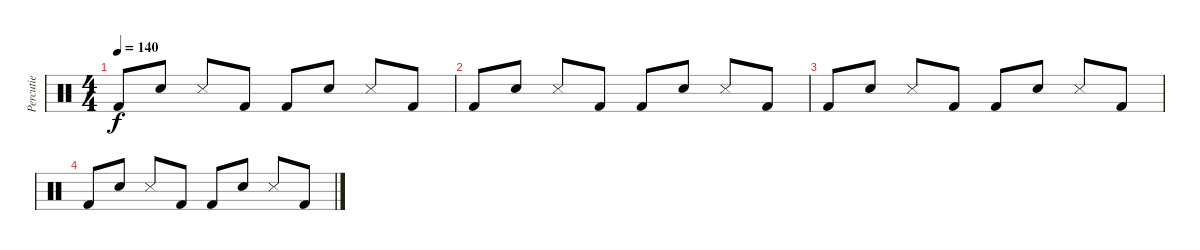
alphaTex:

\track ("Percutie" "Percutie") {instrument percussion}
\staff {score}
\articulation defaults
\ts (4 4)
\tempo 140
\clef neutral
\ks c "Kick (hit) 2".8{dy f} "Electric Snare (hit)".8 "Snare (side stick) 3".8 "Kick (hit) 2".8 "Kick (hit) 2".8 "Electric Snare (hit)".8 "Snare (side stick) 3".8 "Kick (hit) 2".8
|
"Kick (hit) 2".8 "Electric Snare (hit)".8 "Snare (side stick) 3".8 "Kick (hit) 2".8 "Kick (hit) 2".8 "Electric Snare (hit)".8 "Snare (side stick) 3".8 "Kick (hit) 2".8 |
"Kick (hit) 2".8 "Electric Snare (hit)".8 "Snare (side stick) 3".8 "Kick (hit) 2".8 "Kick (hit) 2".8 "Electric Snare (hit)".8 "Snare (side stick) 3".8 "Kick (hit) 2".8 |
"Kick (hit) 2".8 "Electric Snare (hit)".8 "Snare (side stick) 3".8 "Kick (hit) 2".8 "Kick (hit) 2".8 "Electric Snare (hit)".8 "Snare (side stick) 3".8 "Kick (hit) 2".8
